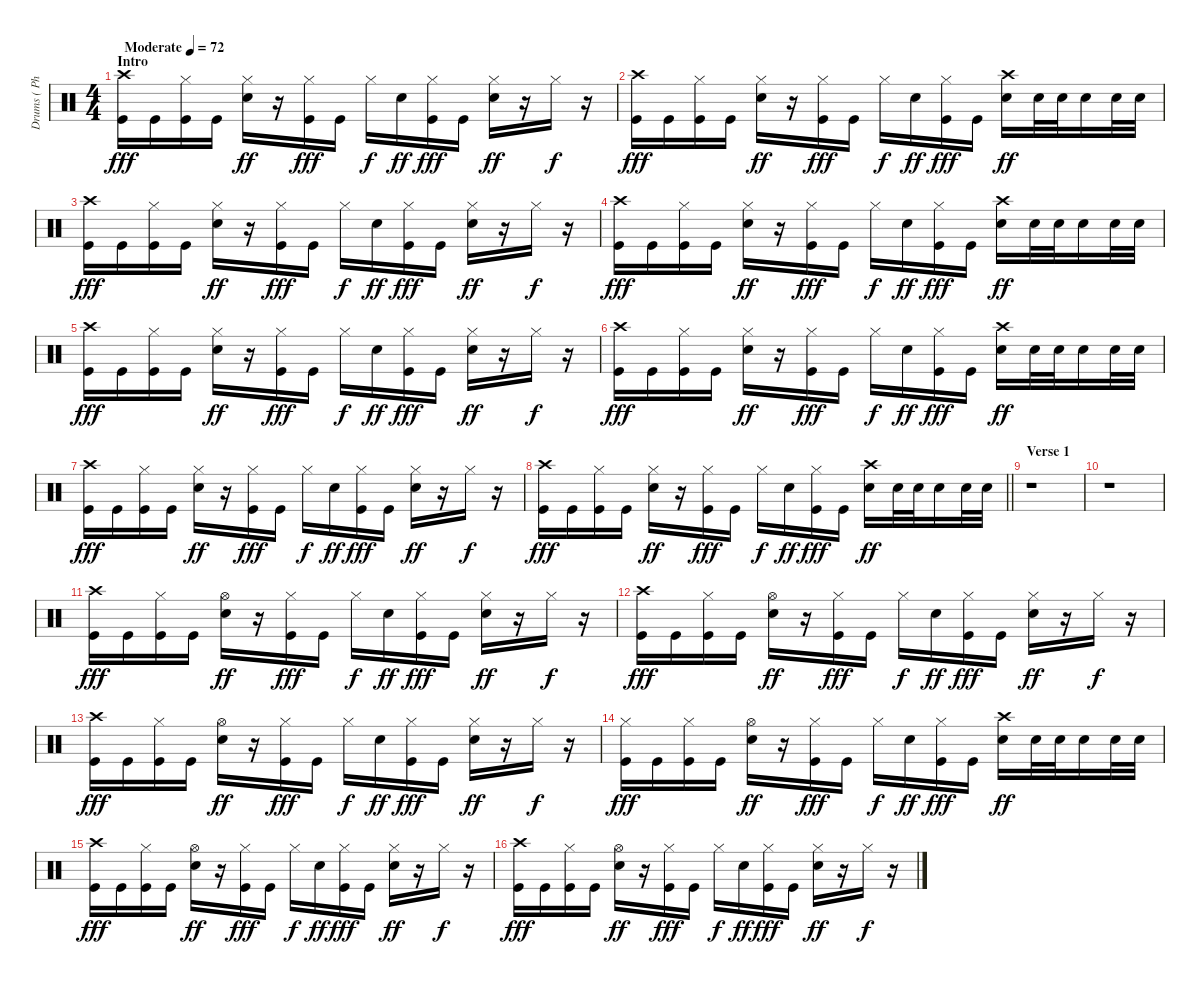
\track ("Drums ( Phillip Selway )" "Drums ( Ph") {instrument percussion}
\staff {score}
\articulation defaults
\ts (4 4)
\section ("" "Intro")
\tempo (72 "Moderate")
\clef neutral
\ks c
("Crash high (hit)" "Kick (hit)").16{dy fff} "Kick (hit)".16 ("Hi-Hat (closed)" "Kick (hit)").16 "Kick (hit)".16 ("Hi-Hat (closed)" "Electric Snare (hit)").16{dy ff} r.16 ("Hi-Hat (closed)" "Kick (hit)").16{dy fff} "Kick (hit)".16 "Hi-Hat (closed)".16{dy f} "Electric Snare (hit)".16{dy ff} ("Hi-Hat (closed)" "Kick (hit)").16{dy fff} "Kick (hit)".16 ("Hi-Hat (closed)" "Electric Snare (hit)").16{dy ff} r.16 "Hi-Hat (closed)".16{dy f} r.16 |
("Crash high (hit)" "Kick (hit)").16{dy fff} "Kick (hit)".16 ("Hi-Hat (closed)" "Kick (hit)").16 "Kick (hit)".16 ("Hi-Hat (closed)" "Electric Snare (hit)").16{dy ff} r.16 ("Hi-Hat (closed)" "Kick (hit)").16{dy fff} "Kick (hit)".16 "Hi-Hat (closed)".16{dy f} "Electric Snare (hit)".16{dy ff} ("Hi-Hat (closed)" "Kick (hit)").16{dy fff} "Kick (hit)".16 ("Crash high (hit)" "Electric Snare (hit)").16{dy ff} "Electric Snare (hit)".32 "Electric Snare (hit)".32 "Electric Snare (hit)".16 "Electric Snare (hit)".32 "Electric Snare (hit)".32 |
("Crash high (hit)" "Kick (hit)").16{dy fff} "Kick (hit)".16 ("Hi-Hat (closed)" "Kick (hit)").16 "Kick (hit)".16 ("Hi-Hat (closed)" "Electric Snare (hit)").16{dy ff} r.16 ("Hi-Hat (closed)" "Kick (hit)").16{dy fff} "Kick (hit)".16 "Hi-Hat (closed)".16{dy f} "Electric Snare (hit)".16{dy ff} ("Hi-Hat (closed)" "Kick (hit)").16{dy fff} "Kick (hit)".16 ("Hi-Hat (closed)" "Electric Snare (hit)").16{dy ff} r.16 "Hi-Hat (closed)".16{dy f} r.16 |
("Crash high (hit)" "Kick (hit)").16{dy fff} "Kick (hit)".16 ("Hi-Hat (closed)" "Kick (hit)").16 "Kick (hit)".16 ("Hi-Hat (closed)" "Electric Snare (hit)").16{dy ff} r.16 ("Hi-Hat (closed)" "Kick (hit)").16{dy fff} "Kick (hit)".16 "Hi-Hat (closed)".16{dy f} "Electric Snare (hit)".16{dy ff} ("Hi-Hat (closed)" "Kick (hit)").16{dy fff} "Kick (hit)".16 ("Crash high (hit)" "Electric Snare (hit)").16{dy ff} "Electric Snare (hit)".32 "Electric Snare (hit)".32 "Electric Snare (hit)".16 "Electric Snare (hit)".32 "Electric Snare (hit)".32 |
("Crash high (hit)" "Kick (hit)").16{dy fff} "Kick (hit)".16 ("Hi-Hat (closed)" "Kick (hit)").16 "Kick (hit)".16 ("Hi-Hat (closed)" "Electric Snare (hit)").16{dy ff} r.16 ("Hi-Hat (closed)" "Kick (hit)").16{dy fff} "Kick (hit)".16 "Hi-Hat (closed)".16{dy f} "Electric Snare (hit)".16{dy ff} ("Hi-Hat (closed)" "Kick (hit)").16{dy fff} "Kick (hit)".16 ("Hi-Hat (closed)" "Electric Snare (hit)").16{dy ff} r.16 "Hi-Hat (closed)".16{dy f} r.16 |
("Crash high (hit)" "Kick (hit)").16{dy fff} "Kick (hit)".16 ("Hi-Hat (closed)" "Kick (hit)").16 "Kick (hit)".16 ("Hi-Hat (closed)" "Electric Snare (hit)").16{dy ff} r.16 ("Hi-Hat (closed)" "Kick (hit)").16{dy fff} "Kick (hit)".16 "Hi-Hat (closed)".16{dy f} "Electric Snare (hit)".16{dy ff} ("Hi-Hat (closed)" "Kick (hit)").16{dy fff} "Kick (hit)".16 ("Crash high (hit)" "Electric Snare (hit)").16{dy ff} "Electric Snare (hit)".32 "Electric Snare (hit)".32 "Electric Snare (hit)".16 "Electric Snare (hit)".32 "Electric Snare (hit)".32 |
("Crash high (hit)" "Kick (hit)").16{dy fff} "Kick (hit)".16 ("Hi-Hat (closed)" "Kick (hit)").16 "Kick (hit)".16 ("Hi-Hat (closed)" "Electric Snare (hit)").16{dy ff} r.16 ("Hi-Hat (closed)" "Kick (hit)").16{dy fff} "Kick (hit)".16 "Hi-Hat (closed)".16{dy f} "Electric Snare (hit)".16{dy ff} ("Hi-Hat (closed)" "Kick (hit)").16{dy fff} "Kick (hit)".16 ("Hi-Hat (closed)" "Electric Snare (hit)").16{dy ff} r.16 "Hi-Hat (closed)".16{dy f} r.16 |
\barLineRight lightlight
("Crash high (hit)" "Kick (hit)").16{dy fff} "Kick (hit)".16 ("Hi-Hat (closed)" "Kick (hit)").16 "Kick (hit)".16 ("Hi-Hat (closed)" "Electric Snare (hit)").16{dy ff} r.16 ("Hi-Hat (closed)" "Kick (hit)").16{dy fff} "Kick (hit)".16 "Hi-Hat (closed)".16{dy f} "Electric Snare (hit)".16{dy ff} ("Hi-Hat (closed)" "Kick (hit)").16{dy fff} "Kick (hit)".16 ("Crash high (hit)" "Electric Snare (hit)").16{dy ff} "Electric Snare (hit)".32 "Electric Snare (hit)".32 "Electric Snare (hit)".16 "Electric Snare (hit)".32 "Electric Snare (hit)".32 |
\section ("" "Verse 1")
r.1 |
r.1 |
("Crash high (hit)" "Kick (hit)").16{dy fff} "Kick (hit)".16 ("Hi-Hat (closed)" "Kick (hit)").16 "Kick (hit)".16 ("Hi-Hat (open)" "Electric Snare (hit)").16{dy ff} r.16 ("Hi-Hat (closed)" "Kick (hit)").16{dy fff} "Kick (hit)".16 "Hi-Hat (closed)".16{dy f} "Electric Snare (hit)".16{dy ff} ("Hi-Hat (closed)" "Kick (hit)").16{dy fff} "Kick (hit)".16 ("Hi-Hat (closed)" "Electric Snare (hit)").16{dy ff} r.16 "Hi-Hat (closed)".16{dy f} r.16 |
("Crash high (hit)" "Kick (hit)").16{dy fff} "Kick (hit)".16 ("Hi-Hat (closed)" "Kick (hit)").16 "Kick (hit)".16 ("Hi-Hat (open)" "Electric Snare (hit)").16{dy ff} r.16 ("Hi-Hat (closed)" "Kick (hit)").16{dy fff} "Kick (hit)".16 "Hi-Hat (closed)".16{dy f} "Electric Snare (hit)".16{dy ff} ("Hi-Hat (closed)" "Kick (hit)").16{dy fff} "Kick (hit)".16 ("Hi-Hat (closed)" "Electric Snare (hit)").16{dy ff} r.16 "Hi-Hat (closed)".16{dy f} r.16 |
("Crash high (hit)" "Kick (hit)").16{dy fff} "Kick (hit)".16 ("Hi-Hat (closed)" "Kick (hit)").16 "Kick (hit)".16 ("Hi-Hat (open)" "Electric Snare (hit)").16{dy ff} r.16 ("Hi-Hat (closed)" "Kick (hit)").16{dy fff} "Kick (hit)".16 "Hi-Hat (closed)".16{dy f} "Electric Snare (hit)".16{dy ff} ("Hi-Hat (closed)" "Kick (hit)").16{dy fff} "Kick (hit)".16 ("Hi-Hat (closed)" "Electric Snare (hit)").16{dy ff} r.16 "Hi-Hat (closed)".16{dy f} r.16 |
("Hi-Hat (closed)" "Kick (hit)").16{dy fff} "Kick (hit)".16 ("Hi-Hat (closed)" "Kick (hit)").16 "Kick (hit)".16 ("Hi-Hat (open)" "Electric Snare (hit)").16{dy ff} r.16 ("Hi-Hat (closed)" "Kick (hit)").16{dy fff} "Kick (hit)".16 "Hi-Hat (closed)".16{dy f} "Electric Snare (hit)".16{dy ff} ("Hi-Hat (closed)" "Kick (hit)").16{dy fff} "Kick (hit)".16 ("Crash high (hit)" "Electric Snare (hit)").16{dy ff} "Electric Snare (hit)".32 "Electric Snare (hit)".32 "Electric Snare (hit)".16 "Electric Snare (hit)".32 "Electric Snare (hit)".32 |
("Crash high (hit)" "Kick (hit)").16{dy fff} "Kick (hit)".16 ("Hi-Hat (closed)" "Kick (hit)").16 "Kick (hit)".16 ("Hi-Hat (open)" "Electric Snare (hit)").16{dy ff} r.16 ("Hi-Hat (closed)" "Kick (hit)").16{dy fff} "Kick (hit)".16 "Hi-Hat (closed)".16{dy f} "Electric Snare (hit)".16{dy ff} ("Hi-Hat (closed)" "Kick (hit)").16{dy fff} "Kick (hit)".16 ("Hi-Hat (closed)" "Electric Snare (hit)").16{dy ff} r.16 "Hi-Hat (closed)".16{dy f} r.16 |
("Crash high (hit)" "Kick (hit)").16{dy fff} "Kick (hit)".16 ("Hi-Hat (closed)" "Kick (hit)").16 "Kick (hit)".16 ("Hi-Hat (open)" "Electric Snare (hit)").16{dy ff} r.16 ("Hi-Hat (closed)" "Kick (hit)").16{dy fff} "Kick (hit)".16 "Hi-Hat (closed)".16{dy f} "Electric Snare (hit)".16{dy ff} ("Hi-Hat (closed)" "Kick (hit)").16{dy fff} "Kick (hit)".16 ("Hi-Hat (closed)" "Electric Snare (hit)").16{dy ff} r.16 "Hi-Hat (closed)".16{dy f} r.16
